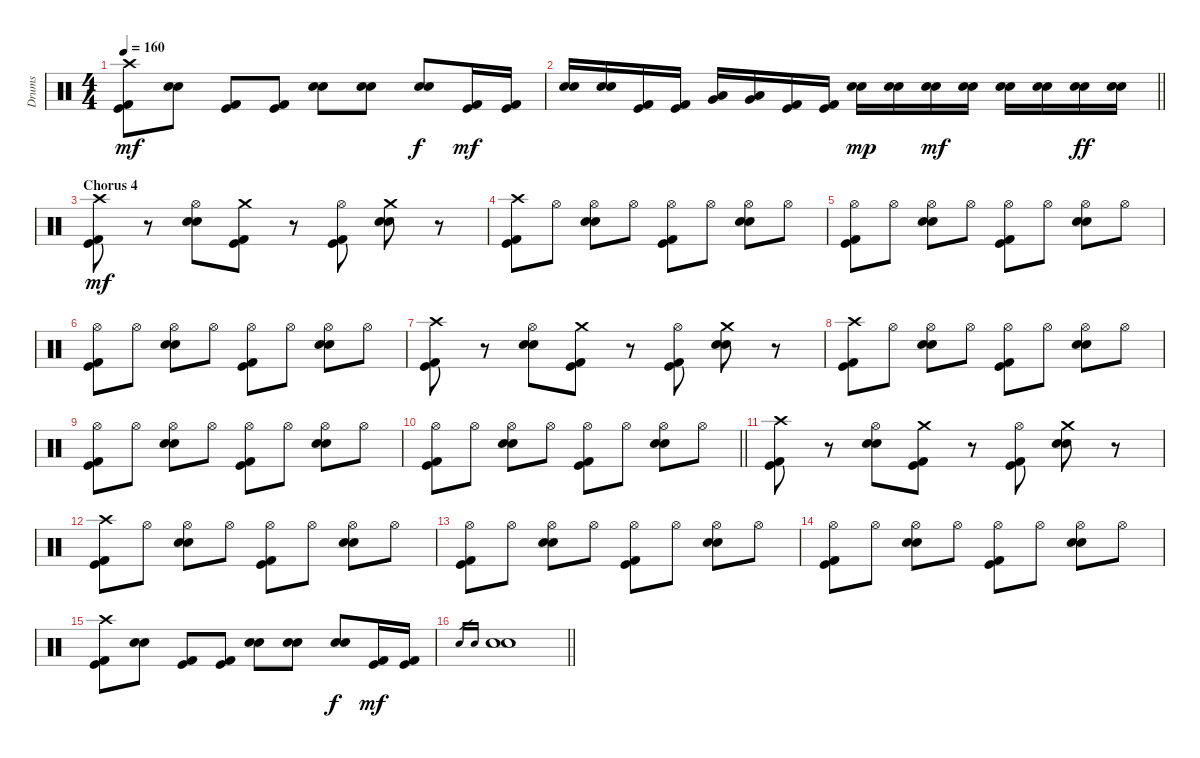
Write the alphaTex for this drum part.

\track ("Drums" "Drums") {instrument percussion}
\staff {score}
\articulation defaults
\ts (4 4)
\tempo 160
\clef neutral
\ks c
("Crash high (hit)" "Kick (hit) 2" "Kick (hit)").8{dy mf} ("Snare (hit) 2" "Electric Snare (hit)").8 ("Kick (hit) 2" "Kick (hit)").8 ("Kick (hit) 2" "Kick (hit)").8 ("Snare (hit) 2" "Electric Snare (hit)").8 ("Snare (hit) 2" "Electric Snare (hit)").8 ("Snare (hit) 2" "Electric Snare (hit)").8{dy f} ("Kick (hit) 2" "Kick (hit)").16{dy mf} ("Kick (hit) 2" "Kick (hit)").16 |
\barLineRight lightlight
("Snare (hit) 2" "Electric Snare (hit)").16 ("Snare (hit) 2" "Electric Snare (hit)").16 ("Kick (hit) 2" "Kick (hit)").16 ("Kick (hit) 2" "Kick (hit)").16 ("Very Low Tom (hit)" "Low Tom (hit)").16 ("Very Low Tom (hit)" "Low Tom (hit)").16 ("Kick (hit) 2" "Kick (hit)").16 ("Kick (hit) 2" "Kick (hit)").16 ("Snare (hit) 2" "Electric Snare (hit)").16{dy mp} ("Snare (hit) 2" "Electric Snare (hit)").16 ("Snare (hit) 2" "Electric Snare (hit)").16{dy mf} ("Snare (hit) 2" "Electric Snare (hit)").16 ("Snare (hit) 2" "Electric Snare (hit)").16 ("Snare (hit) 2" "Electric Snare (hit)").16 ("Snare (hit) 2" "Electric Snare (hit)").16{dy ff} ("Snare (hit) 2" "Electric Snare (hit)").16 |
\section ("" "Chorus 4")
("Crash high (hit)" "Kick (hit) 2" "Kick (hit)").8{dy mf} r.8 ("Hi-Hat (open)" "Snare (hit) 2" "Electric Snare (hit)").8 ("Crash medium (hit)" "Kick (hit) 2" "Kick (hit)").8 r.8 ("Hi-Hat (open)" "Kick (hit) 2" "Kick (hit)").8 ("Crash medium (hit)" "Snare (hit) 2" "Electric Snare (hit)").8 r.8 |
("Crash high (hit)" "Kick (hit) 2" "Kick (hit)").8 "Hi-Hat (open)".8 ("Hi-Hat (open)" "Snare (hit) 2" "Electric Snare (hit)").8 "Hi-Hat (open)".8 ("Hi-Hat (open)" "Kick (hit) 2" "Kick (hit)").8 "Hi-Hat (open)".8 ("Hi-Hat (open)" "Snare (hit) 2" "Electric Snare (hit)").8 "Hi-Hat (open)".8 |
("Hi-Hat (open)" "Kick (hit) 2" "Kick (hit)").8 "Hi-Hat (open)".8 ("Hi-Hat (open)" "Snare (hit) 2" "Electric Snare (hit)").8 "Hi-Hat (open)".8 ("Hi-Hat (open)" "Kick (hit) 2" "Kick (hit)").8 "Hi-Hat (open)".8 ("Hi-Hat (open)" "Snare (hit) 2" "Electric Snare (hit)").8 "Hi-Hat (open)".8 |
("Hi-Hat (open)" "Kick (hit) 2" "Kick (hit)").8 "Hi-Hat (open)".8 ("Hi-Hat (open)" "Snare (hit) 2" "Electric Snare (hit)").8 "Hi-Hat (open)".8 ("Hi-Hat (open)" "Kick (hit) 2" "Kick (hit)").8 "Hi-Hat (open)".8 ("Hi-Hat (open)" "Snare (hit) 2" "Electric Snare (hit)").8 "Hi-Hat (open)".8 |
("Crash high (hit)" "Kick (hit) 2" "Kick (hit)").8 r.8 ("Hi-Hat (open)" "Snare (hit) 2" "Electric Snare (hit)").8 ("Crash medium (hit)" "Kick (hit) 2" "Kick (hit)").8 r.8 ("Hi-Hat (open)" "Kick (hit) 2" "Kick (hit)").8 ("Crash medium (hit)" "Snare (hit) 2" "Electric Snare (hit)").8 r.8 |
("Crash high (hit)" "Kick (hit) 2" "Kick (hit)").8 "Hi-Hat (open)".8 ("Hi-Hat (open)" "Snare (hit) 2" "Electric Snare (hit)").8 "Hi-Hat (open)".8 ("Hi-Hat (open)" "Kick (hit) 2" "Kick (hit)").8 "Hi-Hat (open)".8 ("Hi-Hat (open)" "Snare (hit) 2" "Electric Snare (hit)").8 "Hi-Hat (open)".8 |
("Hi-Hat (open)" "Kick (hit) 2" "Kick (hit)").8 "Hi-Hat (open)".8 ("Hi-Hat (open)" "Snare (hit) 2" "Electric Snare (hit)").8 "Hi-Hat (open)".8 ("Hi-Hat (open)" "Kick (hit) 2" "Kick (hit)").8 "Hi-Hat (open)".8 ("Hi-Hat (open)" "Snare (hit) 2" "Electric Snare (hit)").8 "Hi-Hat (open)".8 |
\barLineRight lightlight
("Hi-Hat (open)" "Kick (hit) 2" "Kick (hit)").8 "Hi-Hat (open)".8 ("Hi-Hat (open)" "Snare (hit) 2" "Electric Snare (hit)").8 "Hi-Hat (open)".8 ("Hi-Hat (open)" "Kick (hit) 2" "Kick (hit)").8 "Hi-Hat (open)".8 ("Hi-Hat (open)" "Snare (hit) 2" "Electric Snare (hit)").8 "Hi-Hat (open)".8 |
("Crash high (hit)" "Kick (hit) 2" "Kick (hit)").8 r.8 ("Hi-Hat (open)" "Snare (hit) 2" "Electric Snare (hit)").8 ("Crash medium (hit)" "Kick (hit) 2" "Kick (hit)").8 r.8 ("Hi-Hat (open)" "Kick (hit) 2" "Kick (hit)").8 ("Crash medium (hit)" "Snare (hit) 2" "Electric Snare (hit)").8 r.8 |
("Crash high (hit)" "Kick (hit) 2" "Kick (hit)").8 "Hi-Hat (open)".8 ("Hi-Hat (open)" "Snare (hit) 2" "Electric Snare (hit)").8 "Hi-Hat (open)".8 ("Hi-Hat (open)" "Kick (hit) 2" "Kick (hit)").8 "Hi-Hat (open)".8 ("Hi-Hat (open)" "Snare (hit) 2" "Electric Snare (hit)").8 "Hi-Hat (open)".8 |
("Hi-Hat (open)" "Kick (hit) 2" "Kick (hit)").8 "Hi-Hat (open)".8 ("Hi-Hat (open)" "Snare (hit) 2" "Electric Snare (hit)").8 "Hi-Hat (open)".8 ("Hi-Hat (open)" "Kick (hit) 2" "Kick (hit)").8 "Hi-Hat (open)".8 ("Hi-Hat (open)" "Snare (hit) 2" "Electric Snare (hit)").8 "Hi-Hat (open)".8 |
("Hi-Hat (open)" "Kick (hit) 2" "Kick (hit)").8 "Hi-Hat (open)".8 ("Hi-Hat (open)" "Snare (hit) 2" "Electric Snare (hit)").8 "Hi-Hat (open)".8 ("Hi-Hat (open)" "Kick (hit) 2" "Kick (hit)").8 "Hi-Hat (open)".8 ("Hi-Hat (open)" "Snare (hit) 2" "Electric Snare (hit)").8 "Hi-Hat (open)".8 |
("Crash high (hit)" "Kick (hit) 2" "Kick (hit)").8 ("Snare (hit) 2" "Electric Snare (hit)").8 ("Kick (hit) 2" "Kick (hit)").8 ("Kick (hit) 2" "Kick (hit)").8 ("Snare (hit) 2" "Electric Snare (hit)").8 ("Snare (hit) 2" "Electric Snare (hit)").8 ("Snare (hit) 2" "Electric Snare (hit)").8{dy f} ("Kick (hit) 2" "Kick (hit)").16{dy mf} ("Kick (hit) 2" "Kick (hit)").16 |
\barLineRight lightlight "Snare (hit) 2".16{gr} "Electric Snare (hit)".16{gr}
("Snare (hit) 2" "Electric Snare (hit)").1
